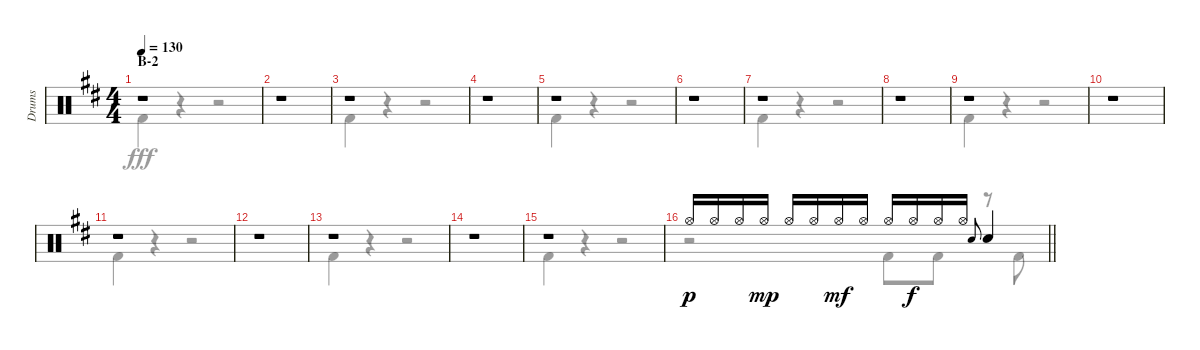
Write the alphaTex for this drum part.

\track ("Drums" "Drums") {instrument percussion}
\staff {score}
\articulation defaults
\voice
\ts (4 4)
\section ("" "B-2")
\tempo 130
\clef neutral
\ks d
r.1{dy f} |
r.1 |
r.1 |
r.1 |
r.1 |
r.1 |
r.1 |
r.1 |
r.1 |
r.1 |
r.1 |
r.1 |
r.1 |
r.1 |
r.1 |
\barLineRight lightlight "Hi-Hat (open)".16{dy p} "Hi-Hat (open)".16 "Hi-Hat (open)".16 "Hi-Hat (open)".16{dy mp} "Hi-Hat (open)".16 "Hi-Hat (open)".16 "Hi-Hat (open)".16{dy mf} "Hi-Hat (open)".16 "Hi-Hat (open)".16 "Hi-Hat (open)".16{dy f} "Hi-Hat (open)".16 "Hi-Hat (open)".16 "Snare (hit) 2".8{gr onbeat} "Snare (hit) 2".4
\voice
\clef neutral
\ottava regular
\simile none
\ks d "Kick (hit) 2".4{dy fff}
r.4 r.2 |
r.1 |
"Kick (hit) 2".4 r.4 r.2 |
r.1 |
"Kick (hit) 2".4 r.4 r.2 |
r.1 |
"Kick (hit) 2".4 r.4 r.2 |
r.1 |
"Kick (hit) 2".4 r.4 r.2 |
r.1 |
"Kick (hit) 2".4 r.4 r.2 |
r.1 |
"Kick (hit) 2".4 r.4 r.2 |
r.1 |
"Kick (hit) 2".4 r.4 r.2 |
\barLineRight lightlight
r.2 "Kick (hit) 2".8 "Kick (hit) 2".8 r.8 "Kick (hit) 2".8
